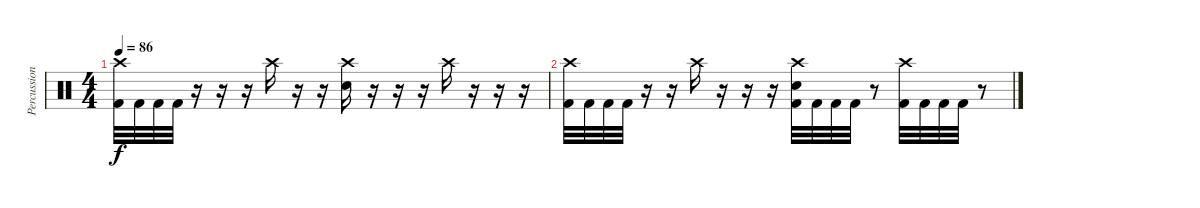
\track ("Percussion" "Percussion") {instrument percussion}
\staff {score}
\articulation defaults
\ts (4 4)
\tempo 86
\clef neutral
\ks c
("Crash high (hit)" "Kick (hit) 2").32{dy f} "Kick (hit) 2".32 "Kick (hit) 2".32 "Kick (hit) 2".32 r.16 r.16 r.16 "Crash high (hit)".16 r.16 r.16 ("Snare (hit) 2" "Crash high (hit)").16 r.16 r.16 r.16 "Crash high (hit)".16 r.16 r.16 r.16 |
("Crash high (hit)" "Kick (hit) 2").32 "Kick (hit) 2".32 "Kick (hit) 2".32 "Kick (hit) 2".32 r.16 r.16 "Crash high (hit)".16 r.16 r.16 r.16 ("Snare (hit) 2" "Crash high (hit)" "Kick (hit) 2").32 "Kick (hit) 2".32 "Kick (hit) 2".32 "Kick (hit) 2".32 r.8 ("Crash high (hit)" "Kick (hit) 2").32 "Kick (hit) 2".32 "Kick (hit) 2".32 "Kick (hit) 2".32 r.8
